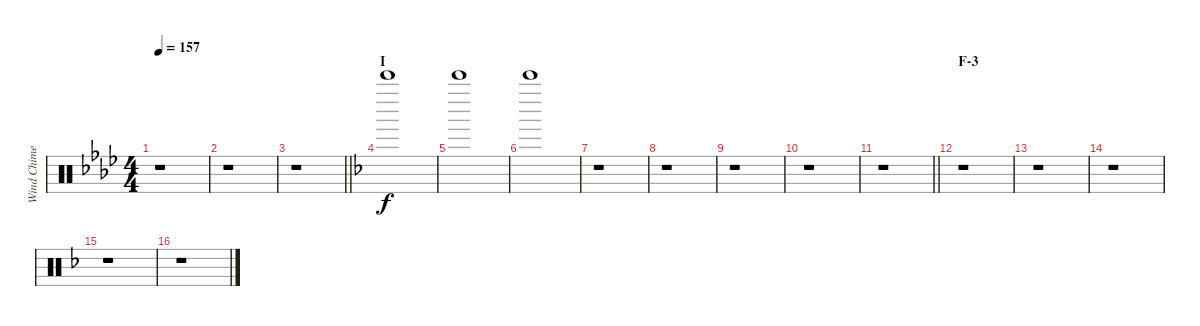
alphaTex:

\track ("Wind Chime" "Wind Chime") {instrument percussion}
\staff {score}
\articulation defaults
\ts (4 4)
\tempo 157
\clef neutral
\ks ab
r.1{dy f} |
r.1 |
\barLineRight lightlight
r.1 |
\section ("" "I")
\ks f "Bell Tree (hit)".1
|
"Bell Tree (hit)".1 |
"Bell Tree (hit)".1 |
r.1 |
r.1 |
r.1 |
r.1 |
\barLineRight lightlight
r.1 |
\section ("" "F-3")
r.1 |
r.1 |
r.1 |
r.1 |
r.1
